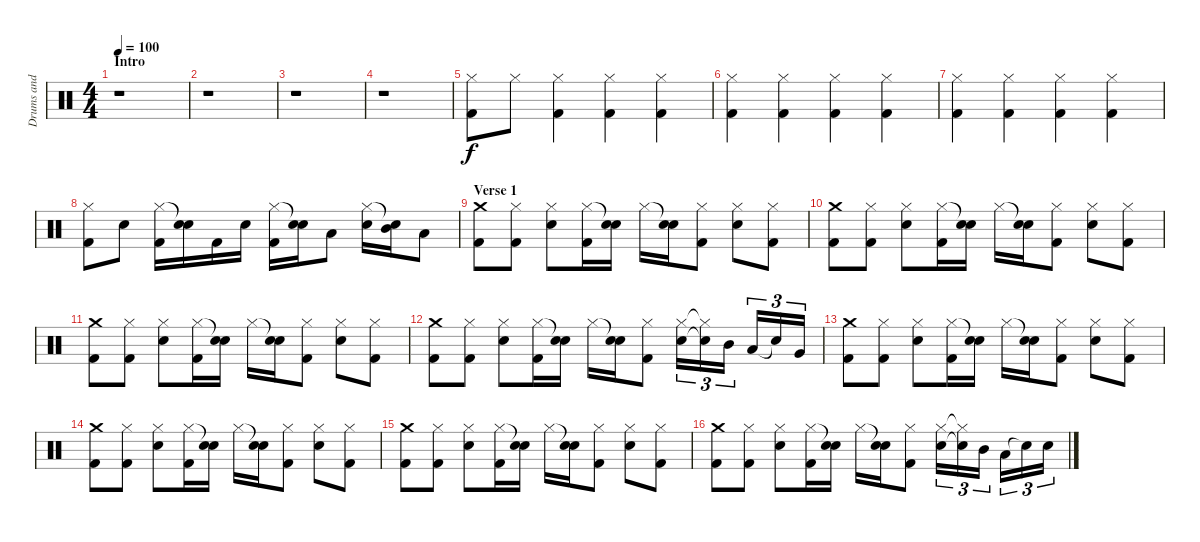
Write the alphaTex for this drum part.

\track ("Drums and Percussion" "Drums and ") {instrument percussion}
\staff {score}
\articulation defaults
\ts (4 4)
\section ("" "Intro")
\tempo 100
\clef neutral
\ks c
r.1{dy f} |
r.1 |
r.1 |
r.1 |
("Hi-Hat (closed)" "Kick (hit) 2").8 "Hi-Hat (closed)".8 ("Hi-Hat (closed)" "Kick (hit) 2").4 ("Hi-Hat (closed)" "Kick (hit) 2").4 ("Hi-Hat (closed)" "Kick (hit) 2").4 |
("Hi-Hat (closed)" "Kick (hit) 2").4 ("Hi-Hat (closed)" "Kick (hit) 2").4 ("Hi-Hat (closed)" "Kick (hit) 2").4 ("Hi-Hat (closed)" "Kick (hit) 2").4 |
("Hi-Hat (closed)" "Kick (hit) 2").4 ("Hi-Hat (closed)" "Kick (hit) 2").4 ("Hi-Hat (closed)" "Kick (hit) 2").4 ("Hi-Hat (closed)" "Kick (hit) 2").4 |
("Hi-Hat (closed)" "Kick (hit) 2").8 "Electric Snare (hit)".8 ("Hi-Hat (closed)" "Kick (hit) 2").16 ("Snare (hit)"{t} "Electric Snare (hit)").16 "Kick (hit) 2".16 "Electric Snare (hit)".16 ("Hi-Hat (closed)" "Kick (hit) 2").16 ("Snare (hit)"{t} "Electric Snare (hit)").16 "Low Tom (hit)".8 ("Hi-Hat (closed)" "Electric Snare (hit)").16 ("Snare (hit)"{t} "Mid Tom (hit)").16 "Low Tom (hit)".8 |
\section ("" "Verse 1")
("Crash medium (hit)" "Kick (hit) 2").8 ("Hi-Hat (closed)" "Kick (hit) 2").8 ("Hi-Hat (closed)" "Electric Snare (hit)").8 ("Hi-Hat (closed)" "Kick (hit) 2").16 ("Snare (hit)"{t} "Electric Snare (hit)").16 "Hi-Hat (closed)".16 ("Snare (hit)"{t} "Electric Snare (hit)").16 ("Hi-Hat (closed)" "Kick (hit) 2").8 ("Hi-Hat (closed)" "Electric Snare (hit)").8 ("Hi-Hat (closed)" "Kick (hit) 2").8 |
("Crash medium (hit)" "Kick (hit) 2").8 ("Hi-Hat (closed)" "Kick (hit) 2").8 ("Hi-Hat (closed)" "Electric Snare (hit)").8 ("Hi-Hat (closed)" "Kick (hit) 2").16 ("Snare (hit)"{t} "Electric Snare (hit)").16 "Hi-Hat (closed)".16 ("Snare (hit)"{t} "Electric Snare (hit)").16 ("Hi-Hat (closed)" "Kick (hit) 2").8 ("Hi-Hat (closed)" "Electric Snare (hit)").8 ("Hi-Hat (closed)" "Kick (hit) 2").8 |
("Crash medium (hit)" "Kick (hit) 2").8 ("Hi-Hat (closed)" "Kick (hit) 2").8 ("Hi-Hat (closed)" "Electric Snare (hit)").8 ("Hi-Hat (closed)" "Kick (hit) 2").16 ("Snare (hit)"{t} "Electric Snare (hit)").16 "Hi-Hat (closed)".16 ("Snare (hit)"{t} "Electric Snare (hit)").16 ("Hi-Hat (closed)" "Kick (hit) 2").8 ("Hi-Hat (closed)" "Electric Snare (hit)").8 ("Hi-Hat (closed)" "Kick (hit) 2").8 |
("Crash medium (hit)" "Kick (hit) 2").8 ("Hi-Hat (closed)" "Kick (hit) 2").8 ("Hi-Hat (closed)" "Electric Snare (hit)").8 ("Hi-Hat (closed)" "Kick (hit) 2").16 ("Snare (hit)"{t} "Electric Snare (hit)").16 "Hi-Hat (closed)".16 ("Snare (hit)"{t} "Electric Snare (hit)").16 ("Hi-Hat (closed)" "Kick (hit) 2").8 ("Hi-Hat (closed)" "Electric Snare (hit)").16{tu (3 2)} ("Hi-Hat (closed)"{t} "Snare (hit)"{t}).16{tu (3 2)} "Mid Tom (hit)".16{tu (3 2)} "Low Tom (hit)".16{tu (3 2)} "Snare (hit)"{t}.16{tu (3 2)} "Very Low Tom (hit)".16{tu (3 2)} |
("Crash medium (hit)" "Kick (hit) 2").8 ("Hi-Hat (closed)" "Kick (hit) 2").8 ("Hi-Hat (closed)" "Electric Snare (hit)").8 ("Hi-Hat (closed)" "Kick (hit) 2").16 ("Snare (hit)"{t} "Electric Snare (hit)").16 "Hi-Hat (closed)".16 ("Snare (hit)"{t} "Electric Snare (hit)").16 ("Hi-Hat (closed)" "Kick (hit) 2").8 ("Hi-Hat (closed)" "Electric Snare (hit)").8 ("Hi-Hat (closed)" "Kick (hit) 2").8 |
("Crash medium (hit)" "Kick (hit) 2").8 ("Hi-Hat (closed)" "Kick (hit) 2").8 ("Hi-Hat (closed)" "Electric Snare (hit)").8 ("Hi-Hat (closed)" "Kick (hit) 2").16 ("Snare (hit)"{t} "Electric Snare (hit)").16 "Hi-Hat (closed)".16 ("Snare (hit)"{t} "Electric Snare (hit)").16 ("Hi-Hat (closed)" "Kick (hit) 2").8 ("Hi-Hat (closed)" "Electric Snare (hit)").8 ("Hi-Hat (closed)" "Kick (hit) 2").8 |
("Crash medium (hit)" "Kick (hit) 2").8 ("Hi-Hat (closed)" "Kick (hit) 2").8 ("Hi-Hat (closed)" "Electric Snare (hit)").8 ("Hi-Hat (closed)" "Kick (hit) 2").16 ("Snare (hit)"{t} "Electric Snare (hit)").16 "Hi-Hat (closed)".16 ("Snare (hit)"{t} "Electric Snare (hit)").16 ("Hi-Hat (closed)" "Kick (hit) 2").8 ("Hi-Hat (closed)" "Electric Snare (hit)").8 ("Hi-Hat (closed)" "Kick (hit) 2").8 |
("Crash medium (hit)" "Kick (hit) 2").8 ("Hi-Hat (closed)" "Kick (hit) 2").8 ("Hi-Hat (closed)" "Electric Snare (hit)").8 ("Hi-Hat (closed)" "Kick (hit) 2").16 ("Snare (hit)"{t} "Electric Snare (hit)").16 "Hi-Hat (closed)".16 ("Snare (hit)"{t} "Electric Snare (hit)").16 ("Hi-Hat (closed)" "Kick (hit) 2").8 ("Hi-Hat (closed)" "Electric Snare (hit)").16{tu (3 2)} ("Hi-Hat (closed)"{t} "Snare (hit)"{t}).16{tu (3 2)} "Mid Tom (hit)".16{tu (3 2)} "Low Tom (hit)".16{tu (3 2)} "Snare (hit)"{t}.16{tu (3 2)} "Electric Snare (hit)".16{tu (3 2)}
